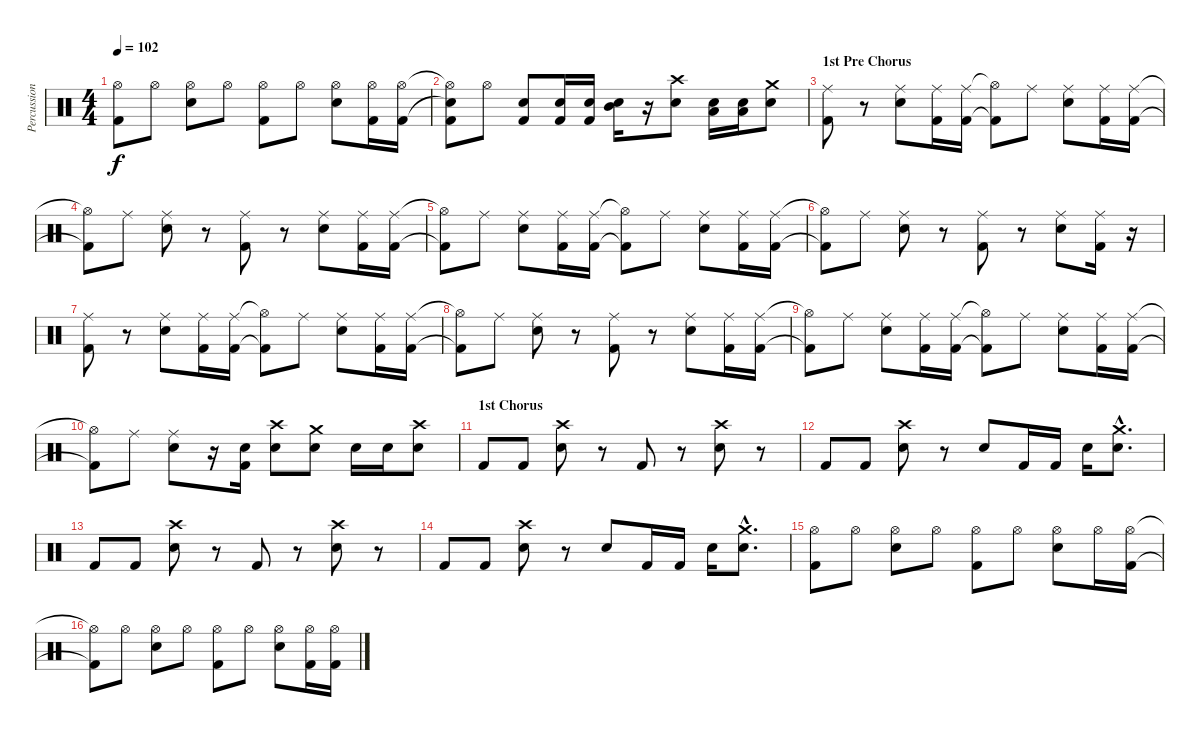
\track ("Percussion" "Percussion") {instrument percussion}
\staff {score}
\articulation defaults
\ts (4 4)
\tempo 102
\clef neutral
\ks c
("Hi-Hat (open)"{t} "Kick (hit) 2"{t}).8{dy f} "Hi-Hat (open)".8 ("Hi-Hat (open)" "Snare (hit) 2").8 "Hi-Hat (open)".8 ("Hi-Hat (open)" "Kick (hit) 2").8 "Hi-Hat (open)".8 ("Hi-Hat (open)" "Snare (hit) 2").8 ("Hi-Hat (open)" "Kick (hit) 2").16 ("Hi-Hat (open)" "Kick (hit) 2").16 |
("Hi-Hat (open)"{t} "Snare (hit) 2"{t} "Kick (hit) 2").8 "Hi-Hat (open)".8 ("Snare (hit) 2" "Kick (hit) 2").8 ("Snare (hit) 2" "Kick (hit) 2").16 ("Snare (hit) 2" "Kick (hit) 2").16 ("Mid Tom (hit)" "Snare (hit) 2").16 r.16 ("Crash high (hit)" "Snare (hit) 2").8 ("Low Tom (hit)" "Snare (hit) 2").16 ("Low Tom (hit)" "Snare (hit) 2").16 ("Crash medium (hit)" "Snare (hit) 2").8 |
\section ("" "1st Pre Chorus")
("Ride (middle)" "Kick (hit) 2").8 r.8 ("Ride (middle)" "Snare (hit) 2").8 ("Ride (middle)" "Kick (hit) 2").16 ("Ride (middle)" "Kick (hit) 2").16 ("Hi-Hat (open)"{t} "Kick (hit) 2"{t}).8 "Ride (middle)".8 ("Ride (middle)" "Snare (hit) 2").8 ("Ride (middle)" "Kick (hit) 2").16 ("Ride (middle)" "Kick (hit) 2").16 |
("Hi-Hat (open)"{t} "Kick (hit) 2"{t}).8 "Ride (middle)".8 ("Ride (middle)" "Snare (hit) 2").8 r.8 ("Ride (middle)" "Kick (hit) 2").8 r.8 ("Ride (middle)" "Snare (hit) 2").8 ("Ride (middle)" "Kick (hit) 2").16 ("Ride (middle)" "Kick (hit) 2").16 |
("Hi-Hat (open)"{t} "Kick (hit) 2"{t}).8 "Ride (middle)".8 ("Ride (middle)" "Snare (hit) 2").8 ("Ride (middle)" "Kick (hit) 2").16 ("Ride (middle)" "Kick (hit) 2").16 ("Hi-Hat (open)"{t} "Kick (hit) 2"{t}).8 "Ride (middle)".8 ("Ride (middle)" "Snare (hit) 2").8 ("Ride (middle)" "Kick (hit) 2").16 ("Ride (middle)" "Kick (hit) 2").16 |
("Hi-Hat (open)"{t} "Kick (hit) 2"{t}).8 "Ride (middle)".8 ("Ride (middle)" "Snare (hit) 2").8 r.8 ("Ride (middle)" "Kick (hit) 2").8 r.8 ("Ride (middle)" "Snare (hit) 2").8 ("Ride (middle)" "Kick (hit) 2").16 r.16 |
("Ride (middle)" "Kick (hit) 2").8 r.8 ("Ride (middle)" "Snare (hit) 2").8 ("Ride (middle)" "Kick (hit) 2").16 ("Ride (middle)" "Kick (hit) 2").16 ("Hi-Hat (open)"{t} "Kick (hit) 2"{t}).8 "Ride (middle)".8 ("Ride (middle)" "Snare (hit) 2").8 ("Ride (middle)" "Kick (hit) 2").16 ("Ride (middle)" "Kick (hit) 2").16 |
("Hi-Hat (open)"{t} "Kick (hit) 2"{t}).8 "Ride (middle)".8 ("Ride (middle)" "Snare (hit) 2").8 r.8 ("Ride (middle)" "Kick (hit) 2").8 r.8 ("Ride (middle)" "Snare (hit) 2").8 ("Ride (middle)" "Kick (hit) 2").16 ("Ride (middle)" "Kick (hit) 2").16 |
("Hi-Hat (open)"{t} "Kick (hit) 2"{t}).8 "Ride (middle)".8 ("Ride (middle)" "Snare (hit) 2").8 ("Ride (middle)" "Kick (hit) 2").16 ("Ride (middle)" "Kick (hit) 2").16 ("Hi-Hat (open)"{t} "Kick (hit) 2"{t}).8 "Ride (middle)".8 ("Ride (middle)" "Snare (hit) 2").8 ("Ride (middle)" "Kick (hit) 2").16 ("Ride (middle)" "Kick (hit) 2").16 |
("Hi-Hat (open)"{t} "Kick (hit) 2"{t}).8 "Ride (middle)".8 ("Ride (middle)" "Snare (hit) 2").8 r.16 ("Snare (hit) 2" "Kick (hit) 2").16 ("Crash high (hit)" "Snare (hit) 2").8 ("Crash medium (hit)" "Snare (hit) 2").8 "Snare (hit) 2".16 "Snare (hit) 2".16 ("Crash high (hit)" "Snare (hit) 2").8 |
\section ("" "1st Chorus")
"Kick (hit) 2".8 "Kick (hit) 2".8 ("Crash high (hit)" "Snare (hit) 2").8 r.8 "Kick (hit) 2".8 r.8 ("Crash high (hit)" "Snare (hit) 2").8 r.8 |
"Kick (hit) 2".8 "Kick (hit) 2".8 ("Crash high (hit)" "Snare (hit) 2").8 r.8 "Snare (hit) 2".8 "Kick (hit) 2".16 "Kick (hit) 2".16 "Snare (hit) 2".16 ("Crash medium (hit)"{hac} "Snare (hit) 2"{hac}).8{d} |
"Kick (hit) 2".8 "Kick (hit) 2".8 ("Crash high (hit)" "Snare (hit) 2").8 r.8 "Kick (hit) 2".8 r.8 ("Crash high (hit)" "Snare (hit) 2").8 r.8 |
"Kick (hit) 2".8 "Kick (hit) 2".8 ("Crash high (hit)" "Snare (hit) 2").8 r.8 "Snare (hit) 2".8 "Kick (hit) 2".16 "Kick (hit) 2".16 "Snare (hit) 2".16 ("Crash medium (hit)"{hac} "Snare (hit) 2"{hac}).8{d} |
("Hi-Hat (open)" "Kick (hit) 2").8 "Hi-Hat (open)".8 ("Hi-Hat (open)" "Snare (hit) 2").8 "Hi-Hat (open)".8 ("Hi-Hat (open)" "Kick (hit) 2").8 "Hi-Hat (open)".8 ("Hi-Hat (open)" "Snare (hit) 2").8 "Hi-Hat (open)".16 ("Hi-Hat (open)" "Kick (hit) 2").16 |
("Hi-Hat (open)"{t} "Kick (hit) 2"{t}).8 "Hi-Hat (open)".8 ("Hi-Hat (open)" "Snare (hit) 2").8 "Hi-Hat (open)".8 ("Hi-Hat (open)" "Kick (hit) 2").8 "Hi-Hat (open)".8 ("Hi-Hat (open)" "Snare (hit) 2").8 ("Hi-Hat (open)" "Kick (hit) 2").16 ("Hi-Hat (open)" "Kick (hit) 2").16
